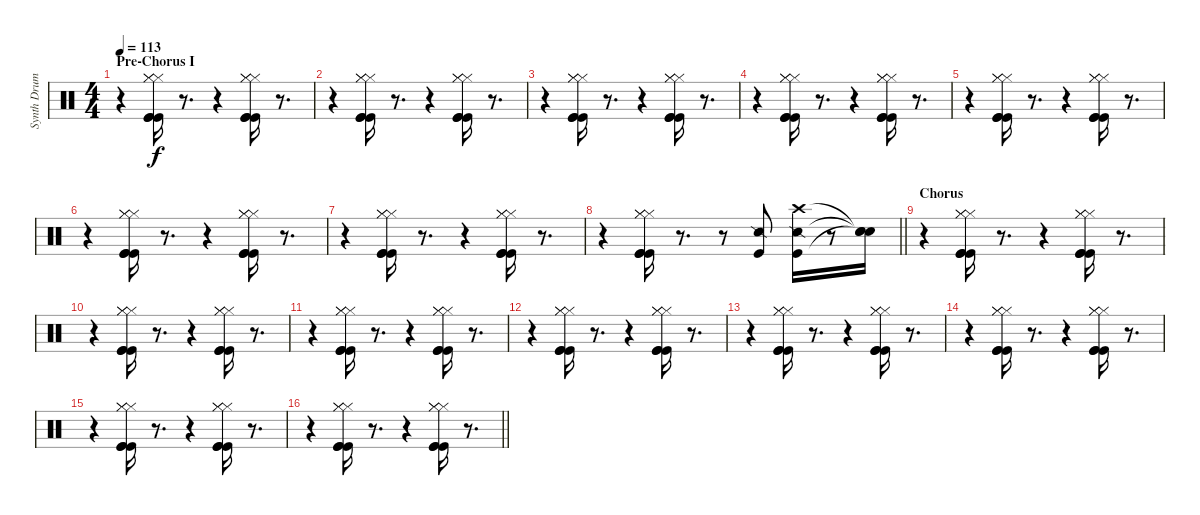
\track ("Synth Drums" "Synth Drum") {instrument percussion}
\staff {score}
\articulation defaults
\ts (4 4)
\section ("" "Pre-Chorus I")
\tempo 113
\clef neutral
\ks c
r.4{dy f} ("Kick (hit)" "Kick (hit)" "Kick (hit)" "Hi-Hat (closed)" "Hi-Hat (closed)" "Hi-Hat (closed)").16 r.8{d} r.4 ("Kick (hit)" "Kick (hit)" "Kick (hit)" "Hi-Hat (closed)" "Hi-Hat (closed)" "Hi-Hat (closed)").16 r.8{d} |
r.4 ("Kick (hit)" "Kick (hit)" "Kick (hit)" "Hi-Hat (closed)" "Hi-Hat (closed)" "Hi-Hat (closed)").16 r.8{d} r.4 ("Kick (hit)" "Kick (hit)" "Kick (hit)" "Hi-Hat (closed)" "Hi-Hat (closed)" "Hi-Hat (closed)").16 r.8{d} |
r.4 ("Kick (hit)" "Kick (hit)" "Kick (hit)" "Hi-Hat (closed)" "Hi-Hat (closed)" "Hi-Hat (closed)").16 r.8{d} r.4 ("Kick (hit)" "Kick (hit)" "Kick (hit)" "Hi-Hat (closed)" "Hi-Hat (closed)" "Hi-Hat (closed)").16 r.8{d} |
r.4 ("Kick (hit)" "Kick (hit)" "Kick (hit)" "Hi-Hat (closed)" "Hi-Hat (closed)" "Hi-Hat (closed)").16 r.8{d} r.4 ("Kick (hit)" "Kick (hit)" "Kick (hit)" "Hi-Hat (closed)" "Hi-Hat (closed)" "Hi-Hat (closed)").16 r.8{d} |
r.4 ("Kick (hit)" "Kick (hit)" "Kick (hit)" "Hi-Hat (closed)" "Hi-Hat (closed)" "Hi-Hat (closed)").16 r.8{d} r.4 ("Kick (hit)" "Kick (hit)" "Kick (hit)" "Hi-Hat (closed)" "Hi-Hat (closed)" "Hi-Hat (closed)").16 r.8{d} |
r.4 ("Kick (hit)" "Kick (hit)" "Kick (hit)" "Hi-Hat (closed)" "Hi-Hat (closed)" "Hi-Hat (closed)").16 r.8{d} r.4 ("Kick (hit)" "Kick (hit)" "Kick (hit)" "Hi-Hat (closed)" "Hi-Hat (closed)" "Hi-Hat (closed)").16 r.8{d} |
r.4 ("Kick (hit)" "Kick (hit)" "Kick (hit)" "Hi-Hat (closed)" "Hi-Hat (closed)" "Hi-Hat (closed)").16 r.8{d} r.4 ("Kick (hit)" "Kick (hit)" "Kick (hit)" "Hi-Hat (closed)" "Hi-Hat (closed)" "Hi-Hat (closed)").16 r.8{d} |
\barLineRight lightlight
r.4 ("Kick (hit)" "Kick (hit)" "Kick (hit)" "Hi-Hat (closed)" "Hi-Hat (closed)" "Hi-Hat (closed)").16 r.8{d} r.8 ("Snare (side stick) 2" "Kick (hit)").8 ("Crash high (hit)" "Snare (side stick) 2" "Kick (hit)").16 r.8 ("Snare (hit)"{t} "Snare (hit)"{t} "Snare (hit)"{t}).16 |
\section ("" "Chorus")
r.4 ("Kick (hit)" "Kick (hit)" "Kick (hit)" "Hi-Hat (closed)" "Hi-Hat (closed)" "Hi-Hat (closed)").16 r.8{d} r.4 ("Kick (hit)" "Kick (hit)" "Kick (hit)" "Hi-Hat (closed)" "Hi-Hat (closed)" "Hi-Hat (closed)").16 r.8{d} |
r.4 ("Kick (hit)" "Kick (hit)" "Kick (hit)" "Hi-Hat (closed)" "Hi-Hat (closed)" "Hi-Hat (closed)").16 r.8{d} r.4 ("Kick (hit)" "Kick (hit)" "Kick (hit)" "Hi-Hat (closed)" "Hi-Hat (closed)" "Hi-Hat (closed)").16 r.8{d} |
r.4 ("Kick (hit)" "Kick (hit)" "Kick (hit)" "Hi-Hat (closed)" "Hi-Hat (closed)" "Hi-Hat (closed)").16 r.8{d} r.4 ("Kick (hit)" "Kick (hit)" "Kick (hit)" "Hi-Hat (closed)" "Hi-Hat (closed)" "Hi-Hat (closed)").16 r.8{d} |
r.4 ("Kick (hit)" "Kick (hit)" "Kick (hit)" "Hi-Hat (closed)" "Hi-Hat (closed)" "Hi-Hat (closed)").16 r.8{d} r.4 ("Kick (hit)" "Kick (hit)" "Kick (hit)" "Hi-Hat (closed)" "Hi-Hat (closed)" "Hi-Hat (closed)").16 r.8{d} |
r.4 ("Kick (hit)" "Kick (hit)" "Kick (hit)" "Hi-Hat (closed)" "Hi-Hat (closed)" "Hi-Hat (closed)").16 r.8{d} r.4 ("Kick (hit)" "Kick (hit)" "Kick (hit)" "Hi-Hat (closed)" "Hi-Hat (closed)" "Hi-Hat (closed)").16 r.8{d} |
r.4 ("Kick (hit)" "Kick (hit)" "Kick (hit)" "Hi-Hat (closed)" "Hi-Hat (closed)" "Hi-Hat (closed)").16 r.8{d} r.4 ("Kick (hit)" "Kick (hit)" "Kick (hit)" "Hi-Hat (closed)" "Hi-Hat (closed)" "Hi-Hat (closed)").16 r.8{d} |
r.4 ("Kick (hit)" "Kick (hit)" "Kick (hit)" "Hi-Hat (closed)" "Hi-Hat (closed)" "Hi-Hat (closed)").16 r.8{d} r.4 ("Kick (hit)" "Kick (hit)" "Kick (hit)" "Hi-Hat (closed)" "Hi-Hat (closed)" "Hi-Hat (closed)").16 r.8{d} |
\barLineRight lightlight
r.4 ("Kick (hit)" "Kick (hit)" "Kick (hit)" "Hi-Hat (closed)" "Hi-Hat (closed)" "Hi-Hat (closed)").16 r.8{d} r.4 ("Kick (hit)" "Kick (hit)" "Kick (hit)" "Hi-Hat (closed)" "Hi-Hat (closed)" "Hi-Hat (closed)").16 r.8{d}
